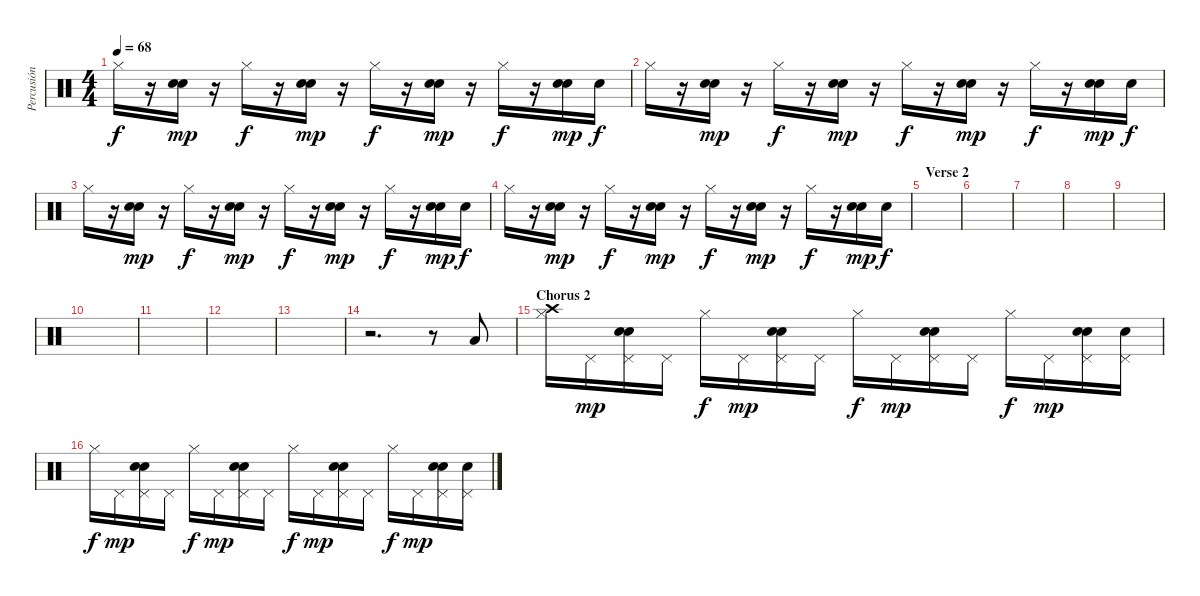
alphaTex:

\track ("Percusión" "Percusión") {instrument percussion}
\staff {score}
\articulation defaults
\ts (4 4)
\tempo 68
\clef neutral
\ks c "Hi-Hat (closed)".16{dy f}
r.16 ("Electric Snare (hit)" "Hand Clap (hit)").16{dy mp} r.16 "Hi-Hat (closed)".16{dy f} r.16 ("Electric Snare (hit)" "Hand Clap (hit)").16{dy mp} r.16 "Hi-Hat (closed)".16{dy f} r.16 ("Electric Snare (hit)" "Hand Clap (hit)").16{dy mp} r.16 "Hi-Hat (closed)".16{dy f} r.16 ("Electric Snare (hit)" "Hand Clap (hit)").16{dy mp} "Electric Snare (hit)".16{dy f} |
"Hi-Hat (closed)".16 r.16 ("Electric Snare (hit)" "Hand Clap (hit)").16{dy mp} r.16 "Hi-Hat (closed)".16{dy f} r.16 ("Electric Snare (hit)" "Hand Clap (hit)").16{dy mp} r.16 "Hi-Hat (closed)".16{dy f} r.16 ("Electric Snare (hit)" "Hand Clap (hit)").16{dy mp} r.16 "Hi-Hat (closed)".16{dy f} r.16 ("Electric Snare (hit)" "Hand Clap (hit)").16{dy mp} "Electric Snare (hit)".16{dy f} |
"Hi-Hat (closed)".16 r.16 ("Electric Snare (hit)" "Hand Clap (hit)").16{dy mp} r.16 "Hi-Hat (closed)".16{dy f} r.16 ("Electric Snare (hit)" "Hand Clap (hit)").16{dy mp} r.16 "Hi-Hat (closed)".16{dy f} r.16 ("Electric Snare (hit)" "Hand Clap (hit)").16{dy mp} r.16 "Hi-Hat (closed)".16{dy f} r.16 ("Electric Snare (hit)" "Hand Clap (hit)").16{dy mp} "Electric Snare (hit)".16{dy f} |
"Hi-Hat (closed)".16 r.16 ("Electric Snare (hit)" "Hand Clap (hit)").16{dy mp} r.16 "Hi-Hat (closed)".16{dy f} r.16 ("Electric Snare (hit)" "Hand Clap (hit)").16{dy mp} r.16 "Hi-Hat (closed)".16{dy f} r.16 ("Electric Snare (hit)" "Hand Clap (hit)").16{dy mp} r.16 "Hi-Hat (closed)".16{dy f} r.16 ("Electric Snare (hit)" "Hand Clap (hit)").16{dy mp} "Electric Snare (hit)".16{dy f} |
\section ("" "Verse 2")
|
|
|
|
|
|
|
|
|
r.2{d} r.8 "Low Tom (hit)".8 |
\section ("" "Chorus 2")
("Hi-Hat (closed)" "Crash high (hit)").16 "Pedal Hi-Hat (hit)".16{dy mp} ("Pedal Hi-Hat (hit)" "Electric Snare (hit)" "Hand Clap (hit)").16 "Pedal Hi-Hat (hit)".16 "Hi-Hat (closed)".16{dy f} "Pedal Hi-Hat (hit)".16{dy mp} ("Pedal Hi-Hat (hit)" "Electric Snare (hit)" "Hand Clap (hit)").16 "Pedal Hi-Hat (hit)".16 "Hi-Hat (closed)".16{dy f} "Pedal Hi-Hat (hit)".16{dy mp} ("Pedal Hi-Hat (hit)" "Electric Snare (hit)" "Hand Clap (hit)").16 "Pedal Hi-Hat (hit)".16 "Hi-Hat (closed)".16{dy f} "Pedal Hi-Hat (hit)".16{dy mp} ("Pedal Hi-Hat (hit)" "Electric Snare (hit)" "Hand Clap (hit)").16 ("Pedal Hi-Hat (hit)" "Electric Snare (hit)").16 |
"Hi-Hat (closed)".16{dy f} "Pedal Hi-Hat (hit)".16{dy mp} ("Pedal Hi-Hat (hit)" "Electric Snare (hit)" "Hand Clap (hit)").16 "Pedal Hi-Hat (hit)".16 "Hi-Hat (closed)".16{dy f} "Pedal Hi-Hat (hit)".16{dy mp} ("Pedal Hi-Hat (hit)" "Electric Snare (hit)" "Hand Clap (hit)").16 "Pedal Hi-Hat (hit)".16 "Hi-Hat (closed)".16{dy f} "Pedal Hi-Hat (hit)".16{dy mp} ("Pedal Hi-Hat (hit)" "Electric Snare (hit)" "Hand Clap (hit)").16 "Pedal Hi-Hat (hit)".16 "Hi-Hat (closed)".16{dy f} "Pedal Hi-Hat (hit)".16{dy mp} ("Pedal Hi-Hat (hit)" "Electric Snare (hit)" "Hand Clap (hit)").16 ("Pedal Hi-Hat (hit)" "Electric Snare (hit)").16
